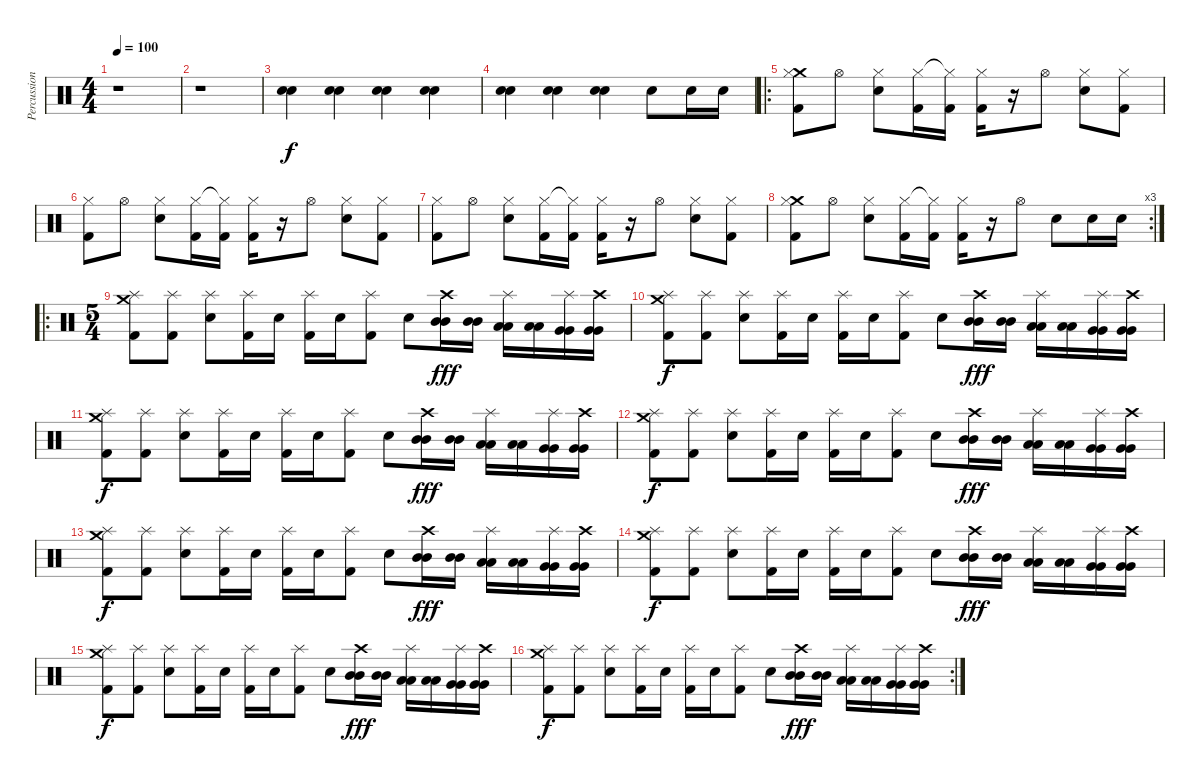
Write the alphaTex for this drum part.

\track ("Percussions" "Percussion") {instrument percussion}
\staff {score}
\articulation defaults
\ts (4 4)
\tempo 100
\clef neutral
\ks c
r.1{dy f} |
r.1 |
("Snare (hit) 2" "Snare (hit) 2").4{volume 8} ("Snare (hit) 2" "Snare (hit) 2").4{volume 16} ("Snare (hit) 2" "Snare (hit) 2").4 ("Snare (hit) 2" "Snare (hit) 2").4 |
("Snare (hit) 2" "Snare (hit) 2").4 ("Snare (hit) 2" "Snare (hit) 2").4 ("Snare (hit) 2" "Snare (hit) 2").4 "Snare (hit) 2".8 "Snare (hit) 2".16 "Snare (hit) 2".16 |
\ro
("Crash medium (hit)" "Hi-Hat (closed)" "Kick (hit) 2").8 "Hi-Hat (open)".8 ("Hi-Hat (closed)" "Snare (hit) 2").8 ("Hi-Hat (closed)" "Kick (hit) 2").16 ("Hi-Hat (closed)"{t} "Kick (hit) 2").16 ("Hi-Hat (closed)" "Kick (hit) 2").16 r.16 "Hi-Hat (open)".8 ("Hi-Hat (closed)" "Snare (hit) 2").8 ("Hi-Hat (closed)" "Kick (hit) 2").8 |
("Hi-Hat (closed)" "Kick (hit) 2").8 "Hi-Hat (open)".8 ("Hi-Hat (closed)" "Snare (hit) 2").8 ("Hi-Hat (closed)" "Kick (hit) 2").16 ("Hi-Hat (closed)"{t} "Kick (hit) 2").16 ("Hi-Hat (closed)" "Kick (hit) 2").16 r.16 "Hi-Hat (open)".8 ("Hi-Hat (closed)" "Snare (hit) 2").8 ("Hi-Hat (closed)" "Kick (hit) 2").8 |
("Hi-Hat (closed)" "Kick (hit) 2").8 "Hi-Hat (open)".8 ("Hi-Hat (closed)" "Snare (hit) 2").8 ("Hi-Hat (closed)" "Kick (hit) 2").16 ("Hi-Hat (closed)"{t} "Kick (hit) 2").16 ("Hi-Hat (closed)" "Kick (hit) 2").16 r.16 "Hi-Hat (open)".8 ("Hi-Hat (closed)" "Snare (hit) 2").8 ("Hi-Hat (closed)" "Kick (hit) 2").8 |
\rc 3
("Crash medium (hit)" "Hi-Hat (closed)" "Kick (hit) 2").8 "Hi-Hat (open)".8 ("Hi-Hat (closed)" "Snare (hit) 2").8 ("Hi-Hat (closed)" "Kick (hit) 2").16 ("Hi-Hat (closed)"{t} "Kick (hit) 2").16 ("Hi-Hat (closed)" "Kick (hit) 2").16 r.16 "Hi-Hat (open)".8 "Snare (hit) 2".8 "Snare (hit) 2".16 "Snare (hit) 2".16 |
\ro
\ts (5 4)
("Crash medium (hit)" "Splash (hit)" "Kick (hit) 2").8 ("Splash (hit)" "Kick (hit) 2").8 ("Splash (hit)" "Snare (hit) 2").8 ("Splash (hit)" "Kick (hit) 2").16 "Snare (hit) 2".16 ("Splash (hit)" "Kick (hit) 2").16 "Snare (hit) 2".16 ("Splash (hit)" "Kick (hit) 2").8 "Snare (hit) 2".8 ("Crash high (hit)" "Mid Tom (hit)" "Mid Tom (hit)").16{dy fff} ("Mid Tom (hit)" "Mid Tom (hit)").16 ("Splash (hit)" "Low Tom (hit)" "Low Tom (hit)").16 ("Low Tom (hit)" "Low Tom (hit)").16 ("Splash (hit)" "Very Low Tom (hit)" "Very Low Tom (hit)").16 ("Crash high (hit)" "Very Low Tom (hit)" "Very Low Tom (hit)").16 |
("Crash medium (hit)" "Splash (hit)" "Kick (hit) 2").8{dy f} ("Splash (hit)" "Kick (hit) 2").8 ("Splash (hit)" "Snare (hit) 2").8 ("Splash (hit)" "Kick (hit) 2").16 "Snare (hit) 2".16 ("Splash (hit)" "Kick (hit) 2").16 "Snare (hit) 2".16 ("Splash (hit)" "Kick (hit) 2").8 "Snare (hit) 2".8 ("Crash high (hit)" "Mid Tom (hit)" "Mid Tom (hit)").16{dy fff} ("Mid Tom (hit)" "Mid Tom (hit)").16 ("Splash (hit)" "Low Tom (hit)" "Low Tom (hit)").16 ("Low Tom (hit)" "Low Tom (hit)").16 ("Splash (hit)" "Very Low Tom (hit)" "Very Low Tom (hit)").16 ("Crash high (hit)" "Very Low Tom (hit)" "Very Low Tom (hit)").16 |
("Crash medium (hit)" "Splash (hit)" "Kick (hit) 2").8{dy f} ("Splash (hit)" "Kick (hit) 2").8 ("Splash (hit)" "Snare (hit) 2").8 ("Splash (hit)" "Kick (hit) 2").16 "Snare (hit) 2".16 ("Splash (hit)" "Kick (hit) 2").16 "Snare (hit) 2".16 ("Splash (hit)" "Kick (hit) 2").8 "Snare (hit) 2".8 ("Crash high (hit)" "Mid Tom (hit)" "Mid Tom (hit)").16{dy fff} ("Mid Tom (hit)" "Mid Tom (hit)").16 ("Splash (hit)" "Low Tom (hit)" "Low Tom (hit)").16 ("Low Tom (hit)" "Low Tom (hit)").16 ("Splash (hit)" "Very Low Tom (hit)" "Very Low Tom (hit)").16 ("Crash high (hit)" "Very Low Tom (hit)" "Very Low Tom (hit)").16 |
("Crash medium (hit)" "Splash (hit)" "Kick (hit) 2").8{dy f} ("Splash (hit)" "Kick (hit) 2").8 ("Splash (hit)" "Snare (hit) 2").8 ("Splash (hit)" "Kick (hit) 2").16 "Snare (hit) 2".16 ("Splash (hit)" "Kick (hit) 2").16 "Snare (hit) 2".16 ("Splash (hit)" "Kick (hit) 2").8 "Snare (hit) 2".8 ("Crash high (hit)" "Mid Tom (hit)" "Mid Tom (hit)").16{dy fff} ("Mid Tom (hit)" "Mid Tom (hit)").16 ("Splash (hit)" "Low Tom (hit)" "Low Tom (hit)").16 ("Low Tom (hit)" "Low Tom (hit)").16 ("Splash (hit)" "Very Low Tom (hit)" "Very Low Tom (hit)").16 ("Crash high (hit)" "Very Low Tom (hit)" "Very Low Tom (hit)").16 |
("Crash medium (hit)" "Splash (hit)" "Kick (hit) 2").8{dy f} ("Splash (hit)" "Kick (hit) 2").8 ("Splash (hit)" "Snare (hit) 2").8 ("Splash (hit)" "Kick (hit) 2").16 "Snare (hit) 2".16 ("Splash (hit)" "Kick (hit) 2").16 "Snare (hit) 2".16 ("Splash (hit)" "Kick (hit) 2").8 "Snare (hit) 2".8 ("Crash high (hit)" "Mid Tom (hit)" "Mid Tom (hit)").16{dy fff} ("Mid Tom (hit)" "Mid Tom (hit)").16 ("Splash (hit)" "Low Tom (hit)" "Low Tom (hit)").16 ("Low Tom (hit)" "Low Tom (hit)").16 ("Splash (hit)" "Very Low Tom (hit)" "Very Low Tom (hit)").16 ("Crash high (hit)" "Very Low Tom (hit)" "Very Low Tom (hit)").16 |
("Crash medium (hit)" "Splash (hit)" "Kick (hit) 2").8{dy f} ("Splash (hit)" "Kick (hit) 2").8 ("Splash (hit)" "Snare (hit) 2").8 ("Splash (hit)" "Kick (hit) 2").16 "Snare (hit) 2".16 ("Splash (hit)" "Kick (hit) 2").16 "Snare (hit) 2".16 ("Splash (hit)" "Kick (hit) 2").8 "Snare (hit) 2".8 ("Crash high (hit)" "Mid Tom (hit)" "Mid Tom (hit)").16{dy fff} ("Mid Tom (hit)" "Mid Tom (hit)").16 ("Splash (hit)" "Low Tom (hit)" "Low Tom (hit)").16 ("Low Tom (hit)" "Low Tom (hit)").16 ("Splash (hit)" "Very Low Tom (hit)" "Very Low Tom (hit)").16 ("Crash high (hit)" "Very Low Tom (hit)" "Very Low Tom (hit)").16 |
("Crash medium (hit)" "Splash (hit)" "Kick (hit) 2").8{dy f} ("Splash (hit)" "Kick (hit) 2").8 ("Splash (hit)" "Snare (hit) 2").8 ("Splash (hit)" "Kick (hit) 2").16 "Snare (hit) 2".16 ("Splash (hit)" "Kick (hit) 2").16 "Snare (hit) 2".16 ("Splash (hit)" "Kick (hit) 2").8 "Snare (hit) 2".8 ("Crash high (hit)" "Mid Tom (hit)" "Mid Tom (hit)").16{dy fff} ("Mid Tom (hit)" "Mid Tom (hit)").16 ("Splash (hit)" "Low Tom (hit)" "Low Tom (hit)").16 ("Low Tom (hit)" "Low Tom (hit)").16 ("Splash (hit)" "Very Low Tom (hit)" "Very Low Tom (hit)").16 ("Crash high (hit)" "Very Low Tom (hit)" "Very Low Tom (hit)").16 |
\rc 2
("Crash medium (hit)" "Splash (hit)" "Kick (hit) 2").8{dy f} ("Splash (hit)" "Kick (hit) 2").8 ("Splash (hit)" "Snare (hit) 2").8 ("Splash (hit)" "Kick (hit) 2").16 "Snare (hit) 2".16 ("Splash (hit)" "Kick (hit) 2").16 "Snare (hit) 2".16 ("Splash (hit)" "Kick (hit) 2").8 "Snare (hit) 2".8 ("Crash high (hit)" "Mid Tom (hit)" "Mid Tom (hit)").16{dy fff} ("Mid Tom (hit)" "Mid Tom (hit)").16 ("Splash (hit)" "Low Tom (hit)" "Low Tom (hit)").16 ("Low Tom (hit)" "Low Tom (hit)").16 ("Splash (hit)" "Very Low Tom (hit)" "Very Low Tom (hit)").16 ("Crash high (hit)" "Very Low Tom (hit)" "Very Low Tom (hit)").16
